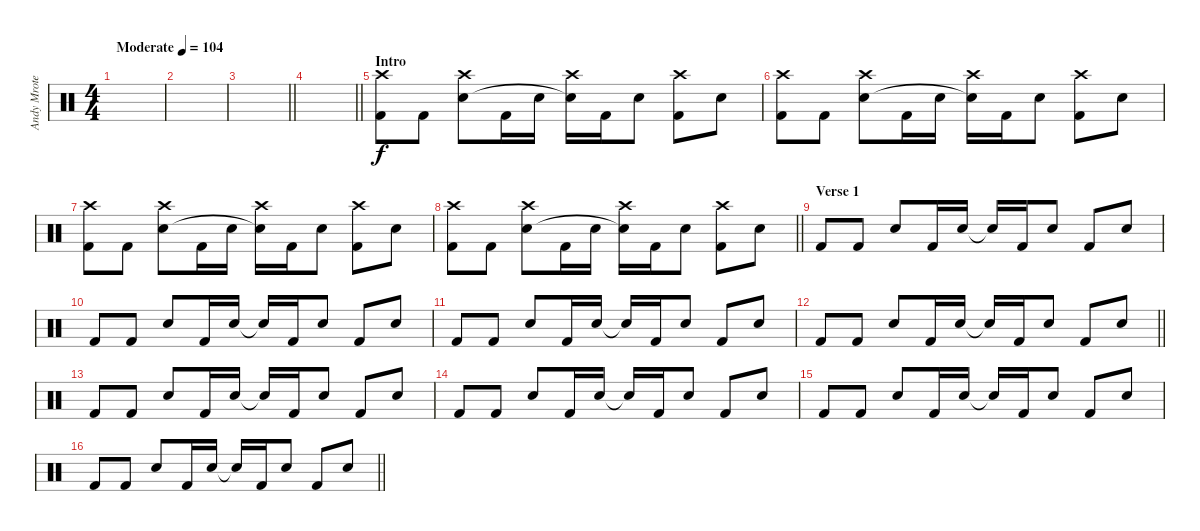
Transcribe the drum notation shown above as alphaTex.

\track ("Andy Mrotek (Percussion)" "Andy Mrote") {instrument percussion}
\staff {score}
\articulation defaults
\ts (4 4)
\tempo (104 "Moderate")
\clef neutral
\ks c
|
|
\barLineRight lightlight
|
\barLineRight lightlight
|
\section ("" "Intro")
("Crash high (hit)" "Kick (hit) 2").8 "Kick (hit) 2".8 ("Crash high (hit)" "Snare (hit) 2").8 "Kick (hit) 2".16 "Snare (hit) 2".16 ("Crash high (hit)" "Snare (hit) 2"{t}).16 "Kick (hit) 2".16 "Snare (hit) 2".8 ("Crash high (hit)" "Kick (hit) 2").8 "Snare (hit) 2".8 |
("Crash high (hit)" "Kick (hit) 2").8 "Kick (hit) 2".8 ("Crash high (hit)" "Snare (hit) 2").8 "Kick (hit) 2".16 "Snare (hit) 2".16 ("Crash high (hit)" "Snare (hit) 2"{t}).16 "Kick (hit) 2".16 "Snare (hit) 2".8 ("Crash high (hit)" "Kick (hit) 2").8 "Snare (hit) 2".8 |
("Crash high (hit)" "Kick (hit) 2").8 "Kick (hit) 2".8 ("Crash high (hit)" "Snare (hit) 2").8 "Kick (hit) 2".16 "Snare (hit) 2".16 ("Crash high (hit)" "Snare (hit) 2"{t}).16 "Kick (hit) 2".16 "Snare (hit) 2".8 ("Crash high (hit)" "Kick (hit) 2").8 "Snare (hit) 2".8 |
\barLineRight lightlight
("Crash high (hit)" "Kick (hit) 2").8 "Kick (hit) 2".8 ("Crash high (hit)" "Snare (hit) 2").8 "Kick (hit) 2".16 "Snare (hit) 2".16 ("Crash high (hit)" "Snare (hit) 2"{t}).16 "Kick (hit) 2".16 "Snare (hit) 2".8 ("Crash high (hit)" "Kick (hit) 2").8 "Snare (hit) 2".8 |
\section ("" "Verse 1")
"Kick (hit) 2".8 "Kick (hit) 2".8 "Snare (hit) 2".8 "Kick (hit) 2".16 "Snare (hit) 2".16 "Snare (hit) 2"{t}.16 "Kick (hit) 2".16 "Snare (hit) 2".8 "Kick (hit) 2".8 "Snare (hit) 2".8 |
"Kick (hit) 2".8 "Kick (hit) 2".8 "Snare (hit) 2".8 "Kick (hit) 2".16 "Snare (hit) 2".16 "Snare (hit) 2"{t}.16 "Kick (hit) 2".16 "Snare (hit) 2".8 "Kick (hit) 2".8 "Snare (hit) 2".8 |
"Kick (hit) 2".8 "Kick (hit) 2".8 "Snare (hit) 2".8 "Kick (hit) 2".16 "Snare (hit) 2".16 "Snare (hit) 2"{t}.16 "Kick (hit) 2".16 "Snare (hit) 2".8 "Kick (hit) 2".8 "Snare (hit) 2".8 |
\barLineRight lightlight "Kick (hit) 2".8 "Kick (hit) 2".8 "Snare (hit) 2".8 "Kick (hit) 2".16 "Snare (hit) 2".16 "Snare (hit) 2"{t}.16 "Kick (hit) 2".16 "Snare (hit) 2".8 "Kick (hit) 2".8 "Snare (hit) 2".8
|
"Kick (hit) 2".8 "Kick (hit) 2".8 "Snare (hit) 2".8 "Kick (hit) 2".16 "Snare (hit) 2".16 "Snare (hit) 2"{t}.16 "Kick (hit) 2".16 "Snare (hit) 2".8 "Kick (hit) 2".8 "Snare (hit) 2".8 |
"Kick (hit) 2".8 "Kick (hit) 2".8 "Snare (hit) 2".8 "Kick (hit) 2".16 "Snare (hit) 2".16 "Snare (hit) 2"{t}.16 "Kick (hit) 2".16 "Snare (hit) 2".8 "Kick (hit) 2".8 "Snare (hit) 2".8 |
"Kick (hit) 2".8 "Kick (hit) 2".8 "Snare (hit) 2".8 "Kick (hit) 2".16 "Snare (hit) 2".16 "Snare (hit) 2"{t}.16 "Kick (hit) 2".16 "Snare (hit) 2".8 "Kick (hit) 2".8 "Snare (hit) 2".8 |
\barLineRight lightlight "Kick (hit) 2".8 "Kick (hit) 2".8 "Snare (hit) 2".8 "Kick (hit) 2".16 "Snare (hit) 2".16 "Snare (hit) 2"{t}.16 "Kick (hit) 2".16 "Snare (hit) 2".8 "Kick (hit) 2".8 "Snare (hit) 2".8
